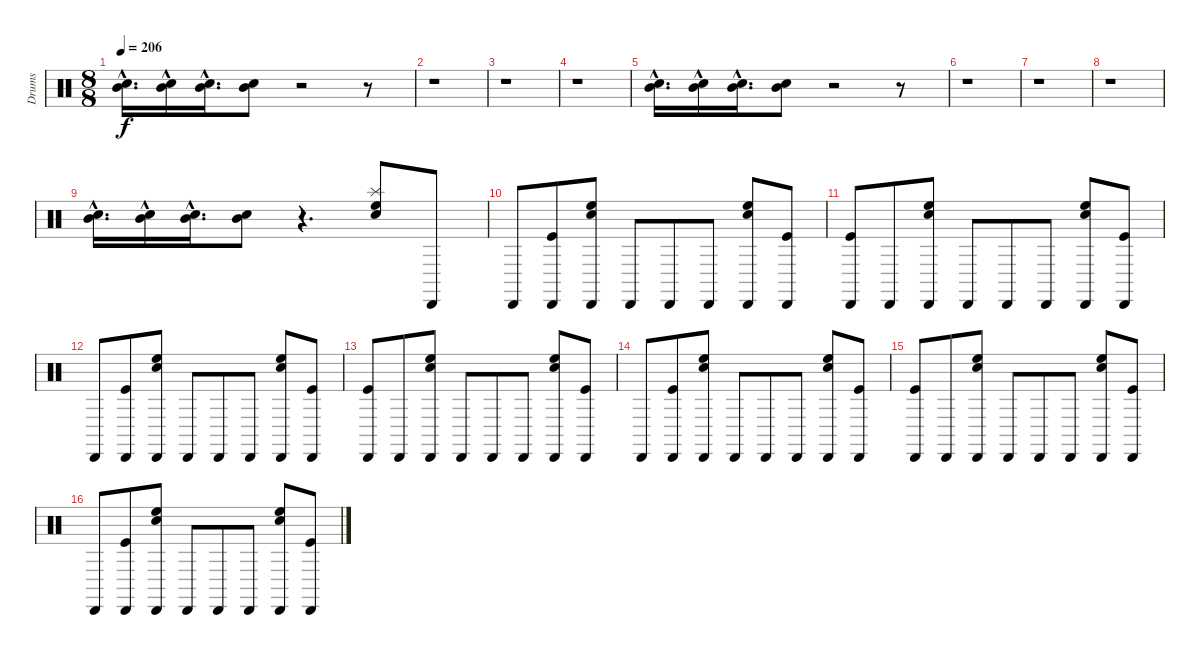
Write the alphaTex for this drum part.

\track ("Drums" "Drums") {instrument percussion}
\staff {score}
\articulation defaults
\ts (8 8)
\tempo 206
\clef neutral
\ks c
("Mid Tom (hit)"{hac} "Electric Snare (hit)"{hac}).16{d dy f} ("Mid Tom (hit)"{hac} "Electric Snare (hit)"{hac}).16 ("Mid Tom (hit)"{hac} "Electric Snare (hit)"{hac}).16{d} ("Electric Snare (hit)" "Mid Tom (hit)").8 r.2 r.8 |
r.1 |
r.1 |
r.1 |
("Mid Tom (hit)"{hac} "Electric Snare (hit)"{hac}).16{d} ("Mid Tom (hit)"{hac} "Electric Snare (hit)"{hac}).16 ("Mid Tom (hit)"{hac} "Electric Snare (hit)"{hac}).16{d} ("Electric Snare (hit)" "Mid Tom (hit)").8 r.2 r.8 |
r.1 |
r.1 |
r.1 |
("Mid Tom (hit)"{hac} "Electric Snare (hit)"{hac}).16{d} ("Mid Tom (hit)"{hac} "Electric Snare (hit)"{hac}).16 ("Mid Tom (hit)"{hac} "Electric Snare (hit)"{hac}).16{d} ("Electric Snare (hit)" "Mid Tom (hit)").8 r.4{d} ("Splash (hit)" "Electric Snare (hit)" "High Floor Tom (hit)").8 "Cabasa (hit)".8 |
"Cabasa (hit)".8 ("Kick (hit)" "Cabasa (hit)").8 ("High Floor Tom (hit)" "Electric Snare (hit)" "Cabasa (hit)").8 "Cabasa (hit)".8 "Cabasa (hit)".8 "Cabasa (hit)".8 ("High Floor Tom (hit)" "Electric Snare (hit)" "Cabasa (hit)").8 ("Kick (hit)" "Cabasa (hit)").8 |
("Kick (hit)" "Cabasa (hit)").8 "Cabasa (hit)".8 ("High Floor Tom (hit)" "Electric Snare (hit)" "Cabasa (hit)").8 "Cabasa (hit)".8 "Cabasa (hit)".8 "Cabasa (hit)".8 ("Electric Snare (hit)" "High Floor Tom (hit)" "Cabasa (hit)").8 ("Kick (hit)" "Cabasa (hit)").8 |
"Cabasa (hit)".8 ("Kick (hit)" "Cabasa (hit)").8 ("High Floor Tom (hit)" "Electric Snare (hit)" "Cabasa (hit)").8 "Cabasa (hit)".8 "Cabasa (hit)".8 "Cabasa (hit)".8 ("High Floor Tom (hit)" "Electric Snare (hit)" "Cabasa (hit)").8 ("Kick (hit)" "Cabasa (hit)").8 |
("Kick (hit)" "Cabasa (hit)").8 "Cabasa (hit)".8 ("High Floor Tom (hit)" "Electric Snare (hit)" "Cabasa (hit)").8 "Cabasa (hit)".8 "Cabasa (hit)".8 "Cabasa (hit)".8 ("Electric Snare (hit)" "High Floor Tom (hit)" "Cabasa (hit)").8 ("Kick (hit)" "Cabasa (hit)").8 |
"Cabasa (hit)".8 ("Kick (hit)" "Cabasa (hit)").8 ("High Floor Tom (hit)" "Electric Snare (hit)" "Cabasa (hit)").8 "Cabasa (hit)".8 "Cabasa (hit)".8 "Cabasa (hit)".8 ("High Floor Tom (hit)" "Electric Snare (hit)" "Cabasa (hit)").8 ("Kick (hit)" "Cabasa (hit)").8 |
("Kick (hit)" "Cabasa (hit)").8 "Cabasa (hit)".8 ("High Floor Tom (hit)" "Electric Snare (hit)" "Cabasa (hit)").8 "Cabasa (hit)".8 "Cabasa (hit)".8 "Cabasa (hit)".8 ("Electric Snare (hit)" "High Floor Tom (hit)" "Cabasa (hit)").8 ("Kick (hit)" "Cabasa (hit)").8 |
"Cabasa (hit)".8 ("Kick (hit)" "Cabasa (hit)").8 ("High Floor Tom (hit)" "Electric Snare (hit)" "Cabasa (hit)").8 "Cabasa (hit)".8 "Cabasa (hit)".8 "Cabasa (hit)".8 ("High Floor Tom (hit)" "Electric Snare (hit)" "Cabasa (hit)").8 ("Kick (hit)" "Cabasa (hit)").8
